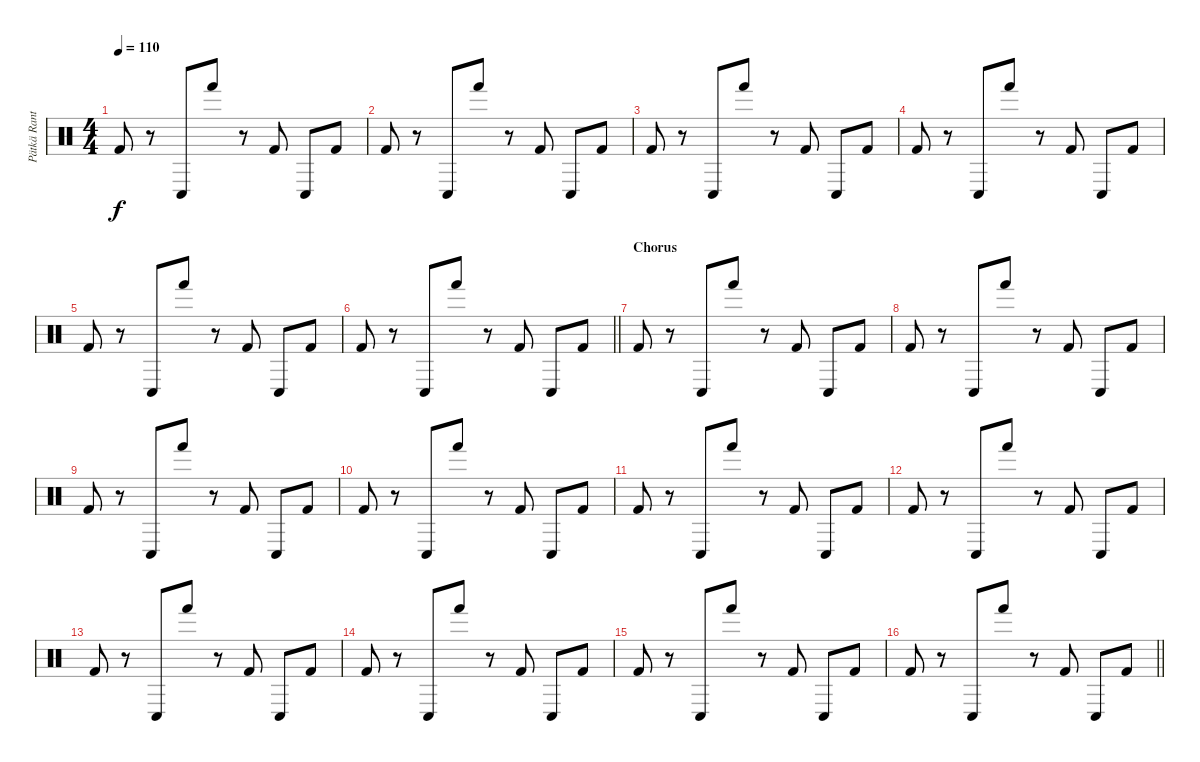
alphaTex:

\track ("Pätkä Rantala (Drums)" "Pätkä Rant") {instrument percussion}
\staff {score}
\articulation defaults
\ts (4 4)
\tempo 110
\clef neutral
\ks c "Kick (hit) 2".8{dy f}
r.8 "Conga low (hit)".8 "Hand (hit)".8 r.8 "Kick (hit) 2".8 "Conga low (hit)".8 "Kick (hit) 2".8 |
"Kick (hit) 2".8 r.8 "Conga low (hit)".8 "Hand (hit)".8 r.8 "Kick (hit) 2".8 "Conga low (hit)".8 "Kick (hit) 2".8 |
"Kick (hit) 2".8 r.8 "Conga low (hit)".8 "Hand (hit)".8 r.8 "Kick (hit) 2".8 "Conga low (hit)".8 "Kick (hit) 2".8 |
"Kick (hit) 2".8 r.8 "Conga low (hit)".8 "Hand (hit)".8 r.8 "Kick (hit) 2".8 "Conga low (hit)".8 "Kick (hit) 2".8 |
"Kick (hit) 2".8 r.8 "Conga low (hit)".8 "Hand (hit)".8 r.8 "Kick (hit) 2".8 "Conga low (hit)".8 "Kick (hit) 2".8 |
\barLineRight lightlight "Kick (hit) 2".8
r.8 "Conga low (hit)".8 "Hand (hit)".8 r.8 "Kick (hit) 2".8 "Conga low (hit)".8 "Kick (hit) 2".8 |
\section ("" "Chorus")
"Kick (hit) 2".8 r.8 "Conga low (hit)".8 "Hand (hit)".8 r.8 "Kick (hit) 2".8 "Conga low (hit)".8 "Kick (hit) 2".8 |
"Kick (hit) 2".8 r.8 "Conga low (hit)".8 "Hand (hit)".8 r.8 "Kick (hit) 2".8 "Conga low (hit)".8 "Kick (hit) 2".8 |
"Kick (hit) 2".8 r.8 "Conga low (hit)".8 "Hand (hit)".8 r.8 "Kick (hit) 2".8 "Conga low (hit)".8 "Kick (hit) 2".8 |
"Kick (hit) 2".8 r.8 "Conga low (hit)".8 "Hand (hit)".8 r.8 "Kick (hit) 2".8 "Conga low (hit)".8 "Kick (hit) 2".8 |
"Kick (hit) 2".8 r.8 "Conga low (hit)".8 "Hand (hit)".8 r.8 "Kick (hit) 2".8 "Conga low (hit)".8 "Kick (hit) 2".8 |
"Kick (hit) 2".8 r.8 "Conga low (hit)".8 "Hand (hit)".8 r.8 "Kick (hit) 2".8 "Conga low (hit)".8 "Kick (hit) 2".8 |
"Kick (hit) 2".8 r.8 "Conga low (hit)".8 "Hand (hit)".8 r.8 "Kick (hit) 2".8 "Conga low (hit)".8 "Kick (hit) 2".8 |
"Kick (hit) 2".8 r.8 "Conga low (hit)".8 "Hand (hit)".8 r.8 "Kick (hit) 2".8 "Conga low (hit)".8 "Kick (hit) 2".8 |
"Kick (hit) 2".8 r.8 "Conga low (hit)".8 "Hand (hit)".8 r.8 "Kick (hit) 2".8 "Conga low (hit)".8 "Kick (hit) 2".8 |
\barLineRight lightlight "Kick (hit) 2".8
r.8 "Conga low (hit)".8 "Hand (hit)".8 r.8 "Kick (hit) 2".8 "Conga low (hit)".8 "Kick (hit) 2".8
